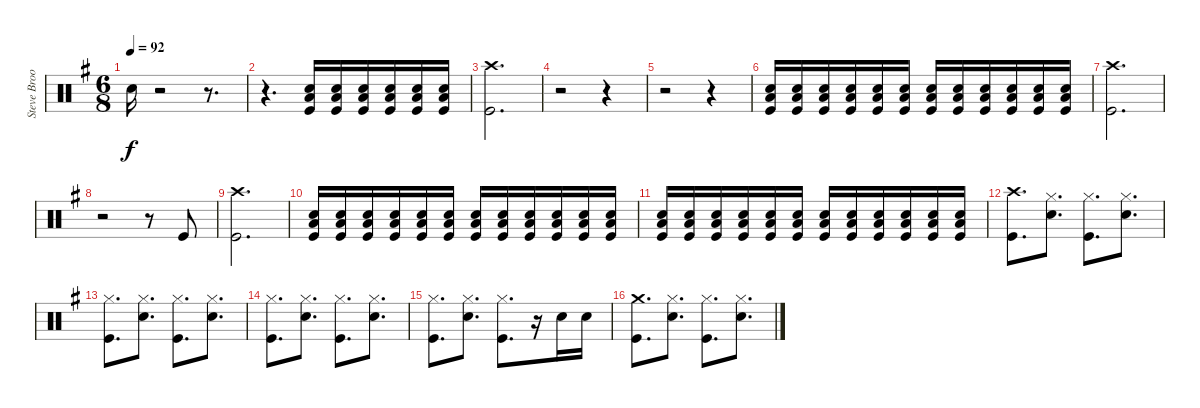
\track ("Steve Brookins Drums" "Steve Broo") {instrument percussion}
\staff {score}
\articulation defaults
\ts (6 8)
\tempo 92
\clef neutral
\ks g "Snare (hit) 2".16{dy f}
r.2 r.8{d} |
r.4{d} ("Snare (hit) 2" "Low Floor Tom (hit)" "Kick (hit)").16 ("Snare (hit) 2" "Low Floor Tom (hit)" "Kick (hit)").16 ("Snare (hit) 2" "Low Floor Tom (hit)" "Kick (hit)").16 ("Snare (hit) 2" "Low Floor Tom (hit)" "Kick (hit)").16 ("Snare (hit) 2" "Low Floor Tom (hit)" "Kick (hit)").16 ("Snare (hit) 2" "Low Floor Tom (hit)" "Kick (hit)").16 |
("Crash high (hit)" "Kick (hit)").2{d} |
r.2 r.4 |
r.2 r.4 |
("Snare (hit) 2" "Low Floor Tom (hit)" "Kick (hit)").16 ("Snare (hit) 2" "Low Floor Tom (hit)" "Kick (hit)").16 ("Snare (hit) 2" "Low Floor Tom (hit)" "Kick (hit)").16 ("Snare (hit) 2" "Low Floor Tom (hit)" "Kick (hit)").16 ("Snare (hit) 2" "Low Floor Tom (hit)" "Kick (hit)").16 ("Snare (hit) 2" "Low Floor Tom (hit)" "Kick (hit)").16 ("Snare (hit) 2" "Low Floor Tom (hit)" "Kick (hit)").16 ("Snare (hit) 2" "Low Floor Tom (hit)" "Kick (hit)").16 ("Snare (hit) 2" "Low Floor Tom (hit)" "Kick (hit)").16 ("Snare (hit) 2" "Low Floor Tom (hit)" "Kick (hit)").16 ("Snare (hit) 2" "Low Floor Tom (hit)" "Kick (hit)").16 ("Snare (hit) 2" "Low Floor Tom (hit)" "Kick (hit)").16 |
("Crash high (hit)" "Kick (hit)").2{d} |
r.2 r.8 "Kick (hit)".8 |
("Crash high (hit)" "Kick (hit)").2{d} |
("Snare (hit) 2" "Low Floor Tom (hit)" "Kick (hit)").16 ("Snare (hit) 2" "Low Floor Tom (hit)" "Kick (hit)").16 ("Snare (hit) 2" "Low Floor Tom (hit)" "Kick (hit)").16 ("Snare (hit) 2" "Low Floor Tom (hit)" "Kick (hit)").16 ("Snare (hit) 2" "Low Floor Tom (hit)" "Kick (hit)").16 ("Snare (hit) 2" "Low Floor Tom (hit)" "Kick (hit)").16 ("Snare (hit) 2" "Low Floor Tom (hit)" "Kick (hit)").16 ("Snare (hit) 2" "Low Floor Tom (hit)" "Kick (hit)").16 ("Snare (hit) 2" "Low Floor Tom (hit)" "Kick (hit)").16 ("Snare (hit) 2" "Low Floor Tom (hit)" "Kick (hit)").16 ("Snare (hit) 2" "Low Floor Tom (hit)" "Kick (hit)").16 ("Snare (hit) 2" "Low Floor Tom (hit)" "Kick (hit)").16 |
("Snare (hit) 2" "Low Floor Tom (hit)" "Kick (hit)").16 ("Snare (hit) 2" "Low Floor Tom (hit)" "Kick (hit)").16 ("Snare (hit) 2" "Low Floor Tom (hit)" "Kick (hit)").16 ("Snare (hit) 2" "Low Floor Tom (hit)" "Kick (hit)").16 ("Snare (hit) 2" "Low Floor Tom (hit)" "Kick (hit)").16 ("Snare (hit) 2" "Low Floor Tom (hit)" "Kick (hit)").16 ("Snare (hit) 2" "Low Floor Tom (hit)" "Kick (hit)").16 ("Snare (hit) 2" "Low Floor Tom (hit)" "Kick (hit)").16 ("Snare (hit) 2" "Low Floor Tom (hit)" "Kick (hit)").16 ("Snare (hit) 2" "Low Floor Tom (hit)" "Kick (hit)").16 ("Snare (hit) 2" "Low Floor Tom (hit)" "Kick (hit)").16 ("Snare (hit) 2" "Low Floor Tom (hit)" "Kick (hit)").16 |
("Crash high (hit)" "Kick (hit)").8{d} ("Hi-Hat (closed)" "Snare (hit) 2").8{d} ("Hi-Hat (closed)" "Kick (hit)").8{d} ("Hi-Hat (closed)" "Snare (hit) 2").8{d} |
("Hi-Hat (closed)" "Kick (hit)").8{d} ("Hi-Hat (closed)" "Snare (hit) 2").8{d} ("Hi-Hat (closed)" "Kick (hit)").8{d} ("Hi-Hat (closed)" "Snare (hit) 2").8{d} |
("Hi-Hat (closed)" "Kick (hit)").8{d} ("Hi-Hat (closed)" "Snare (hit) 2").8{d} ("Hi-Hat (closed)" "Kick (hit)").8{d} ("Hi-Hat (closed)" "Snare (hit) 2").8{d} |
("Hi-Hat (closed)" "Kick (hit)").8{d} ("Hi-Hat (closed)" "Snare (hit) 2").8{d} ("Hi-Hat (closed)" "Kick (hit)").8{d} r.16 "Snare (hit) 2".16 "Snare (hit) 2".16 |
("Crash medium (hit)" "Kick (hit)").8{d} ("Hi-Hat (closed)" "Snare (hit) 2").8{d} ("Hi-Hat (closed)" "Kick (hit)").8{d} ("Hi-Hat (closed)" "Snare (hit) 2").8{d}
